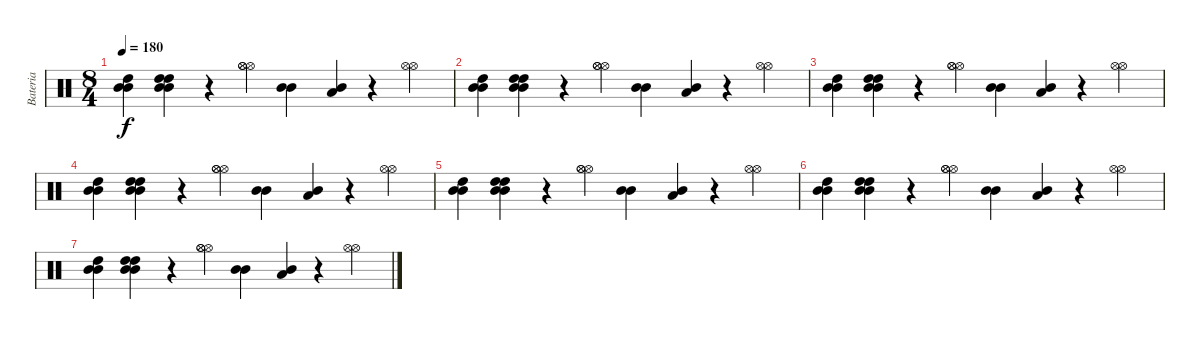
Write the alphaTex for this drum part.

\track ("Bateria" "Bateria") {instrument percussion}
\staff {score}
\articulation defaults
\ts (8 4)
\tempo 180
\clef neutral
\ks c
("High Tom (hit)" "Mid Tom (hit)" "Mid Tom (hit)").4{dy f} ("High Tom (hit)" "High Tom (hit)" "Mid Tom (hit)" "Mid Tom (hit)").4 r.4 ("Hi-Hat (open)" "Hi-Hat (open)" "Hi-Hat (open)").4 ("Mid Tom (hit)" "Mid Tom (hit)").4 ("Low Tom (hit)" "Mid Tom (hit)").4 r.4 ("Hi-Hat (open)" "Hi-Hat (open)").4 |
("High Tom (hit)" "Mid Tom (hit)" "Mid Tom (hit)").4 ("High Tom (hit)" "High Tom (hit)" "Mid Tom (hit)" "Mid Tom (hit)").4 r.4 ("Hi-Hat (open)" "Hi-Hat (open)" "Hi-Hat (open)").4 ("Mid Tom (hit)" "Mid Tom (hit)").4 ("Low Tom (hit)" "Mid Tom (hit)").4 r.4 ("Hi-Hat (open)" "Hi-Hat (open)").4 |
("High Tom (hit)" "Mid Tom (hit)" "Mid Tom (hit)").4 ("High Tom (hit)" "High Tom (hit)" "Mid Tom (hit)" "Mid Tom (hit)").4 r.4 ("Hi-Hat (open)" "Hi-Hat (open)" "Hi-Hat (open)").4 ("Mid Tom (hit)" "Mid Tom (hit)").4 ("Low Tom (hit)" "Mid Tom (hit)").4 r.4 ("Hi-Hat (open)" "Hi-Hat (open)").4 |
("High Tom (hit)" "Mid Tom (hit)" "Mid Tom (hit)").4 ("High Tom (hit)" "High Tom (hit)" "Mid Tom (hit)" "Mid Tom (hit)").4 r.4 ("Hi-Hat (open)" "Hi-Hat (open)" "Hi-Hat (open)").4 ("Mid Tom (hit)" "Mid Tom (hit)").4 ("Low Tom (hit)" "Mid Tom (hit)").4 r.4 ("Hi-Hat (open)" "Hi-Hat (open)").4 |
("High Tom (hit)" "Mid Tom (hit)" "Mid Tom (hit)").4 ("High Tom (hit)" "High Tom (hit)" "Mid Tom (hit)" "Mid Tom (hit)").4 r.4 ("Hi-Hat (open)" "Hi-Hat (open)" "Hi-Hat (open)").4 ("Mid Tom (hit)" "Mid Tom (hit)").4 ("Low Tom (hit)" "Mid Tom (hit)").4 r.4 ("Hi-Hat (open)" "Hi-Hat (open)").4 |
("High Tom (hit)" "Mid Tom (hit)" "Mid Tom (hit)").4 ("High Tom (hit)" "High Tom (hit)" "Mid Tom (hit)" "Mid Tom (hit)").4 r.4 ("Hi-Hat (open)" "Hi-Hat (open)" "Hi-Hat (open)").4 ("Mid Tom (hit)" "Mid Tom (hit)").4 ("Low Tom (hit)" "Mid Tom (hit)").4 r.4 ("Hi-Hat (open)" "Hi-Hat (open)").4 |
("High Tom (hit)" "Mid Tom (hit)" "Mid Tom (hit)").4 ("High Tom (hit)" "High Tom (hit)" "Mid Tom (hit)" "Mid Tom (hit)").4 r.4 ("Hi-Hat (open)" "Hi-Hat (open)" "Hi-Hat (open)").4 ("Mid Tom (hit)" "Mid Tom (hit)").4 ("Low Tom (hit)" "Mid Tom (hit)").4 r.4 ("Hi-Hat (open)" "Hi-Hat (open)").4
